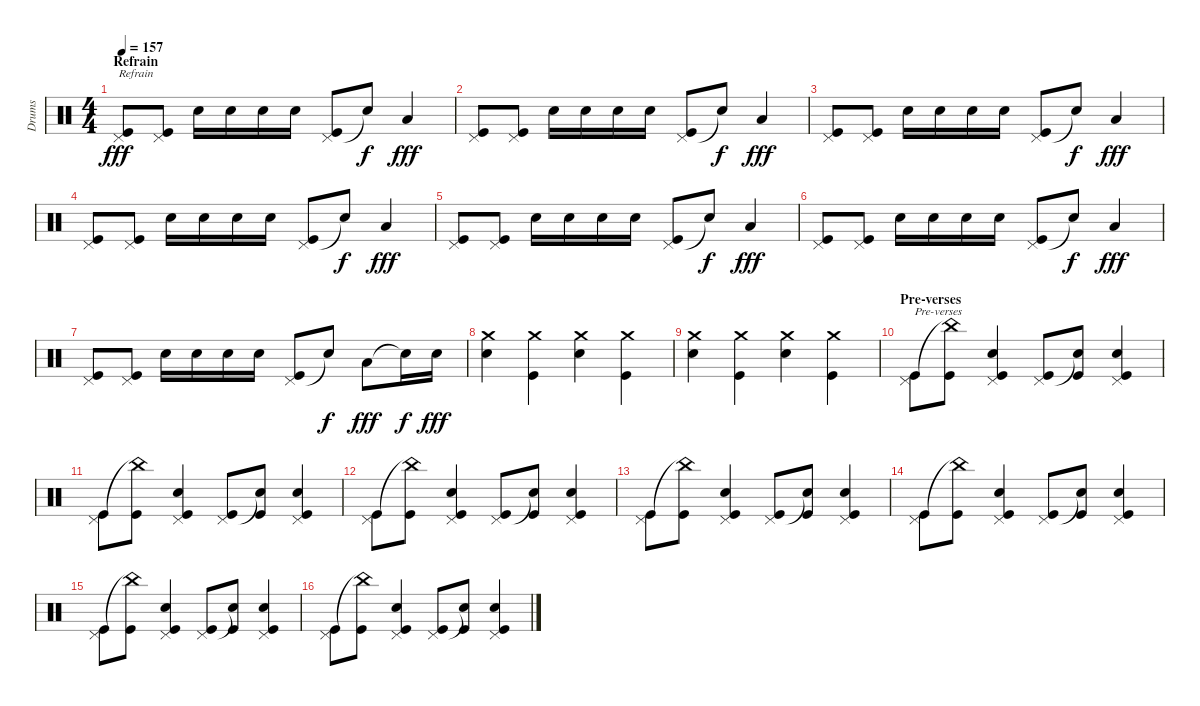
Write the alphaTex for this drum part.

\track ("Drums" "Drums") {instrument percussion}
\staff {score}
\articulation defaults
\ts (4 4)
\section ("" "Refrain")
\tempo 157
\clef neutral
\ks c
("Pedal Hi-Hat (hit)" "Kick (hit)").8{txt "Refrain" dy fff} ("Pedal Hi-Hat (hit)" "Kick (hit)").8 "Electric Snare (hit)".16 "Electric Snare (hit)".16 "Electric Snare (hit)".16 "Electric Snare (hit)".16 ("Pedal Hi-Hat (hit)" "Kick (hit)").8 "Snare (hit)"{t}.8{dy f} "Low Tom (hit)".4{dy fff} |
("Pedal Hi-Hat (hit)" "Kick (hit)").8 ("Pedal Hi-Hat (hit)" "Kick (hit)").8 "Electric Snare (hit)".16 "Electric Snare (hit)".16 "Electric Snare (hit)".16 "Electric Snare (hit)".16 ("Pedal Hi-Hat (hit)" "Kick (hit)").8 "Snare (hit)"{t}.8{dy f} "Low Tom (hit)".4{dy fff} |
("Pedal Hi-Hat (hit)" "Kick (hit)").8 ("Pedal Hi-Hat (hit)" "Kick (hit)").8 "Electric Snare (hit)".16 "Electric Snare (hit)".16 "Electric Snare (hit)".16 "Electric Snare (hit)".16 ("Pedal Hi-Hat (hit)" "Kick (hit)").8 "Snare (hit)"{t}.8{dy f} "Low Tom (hit)".4{dy fff} |
("Pedal Hi-Hat (hit)" "Kick (hit)").8 ("Pedal Hi-Hat (hit)" "Kick (hit)").8 "Electric Snare (hit)".16 "Electric Snare (hit)".16 "Electric Snare (hit)".16 "Electric Snare (hit)".16 ("Pedal Hi-Hat (hit)" "Kick (hit)").8 "Snare (hit)"{t}.8{dy f} "Low Tom (hit)".4{dy fff} |
("Pedal Hi-Hat (hit)" "Kick (hit)").8 ("Pedal Hi-Hat (hit)" "Kick (hit)").8 "Electric Snare (hit)".16 "Electric Snare (hit)".16 "Electric Snare (hit)".16 "Electric Snare (hit)".16 ("Pedal Hi-Hat (hit)" "Kick (hit)").8 "Snare (hit)"{t}.8{dy f} "Low Tom (hit)".4{dy fff} |
("Pedal Hi-Hat (hit)" "Kick (hit)").8 ("Pedal Hi-Hat (hit)" "Kick (hit)").8 "Electric Snare (hit)".16 "Electric Snare (hit)".16 "Electric Snare (hit)".16 "Electric Snare (hit)".16 ("Pedal Hi-Hat (hit)" "Kick (hit)").8 "Snare (hit)"{t}.8{dy f} "Low Tom (hit)".4{dy fff} |
("Pedal Hi-Hat (hit)" "Kick (hit)").8 ("Pedal Hi-Hat (hit)" "Kick (hit)").8 "Electric Snare (hit)".16 "Electric Snare (hit)".16 "Electric Snare (hit)".16 "Electric Snare (hit)".16 ("Pedal Hi-Hat (hit)" "Kick (hit)").8 "Snare (hit)"{t}.8{dy f} "Low Tom (hit)".8{dy fff} "Snare (hit)"{t}.16{dy f} "Electric Snare (hit)".16{dy fff} |
("Crash medium (hit)" "Electric Snare (hit)").4 ("Crash medium (hit)" "Kick (hit)").4 ("Crash medium (hit)" "Electric Snare (hit)").4 ("Crash medium (hit)" "Kick (hit)").4 |
("Crash medium (hit)" "Electric Snare (hit)").4 ("Crash medium (hit)" "Kick (hit)").4 ("Crash medium (hit)" "Electric Snare (hit)").4 ("Crash medium (hit)" "Kick (hit)").4 |
\section ("" "Pre-verses")
("Pedal Hi-Hat (hit)" "Kick (hit)").8{txt "Pre-verses"} ("China (hit)"{t} "Kick (hit)").8 ("Pedal Hi-Hat (hit)" "Electric Snare (hit)" "Kick (hit)").4 ("Pedal Hi-Hat (hit)" "Kick (hit)").8 ("Snare (hit)"{t} "Kick (hit)").8 ("Pedal Hi-Hat (hit)" "Electric Snare (hit)" "Kick (hit)").4 |
("Pedal Hi-Hat (hit)" "Kick (hit)").8 ("China (hit)"{t} "Kick (hit)").8 ("Pedal Hi-Hat (hit)" "Electric Snare (hit)" "Kick (hit)").4 ("Pedal Hi-Hat (hit)" "Kick (hit)").8 ("Snare (hit)"{t} "Kick (hit)").8 ("Pedal Hi-Hat (hit)" "Electric Snare (hit)" "Kick (hit)").4 |
("Pedal Hi-Hat (hit)" "Kick (hit)").8 ("China (hit)"{t} "Kick (hit)").8 ("Pedal Hi-Hat (hit)" "Electric Snare (hit)" "Kick (hit)").4 ("Pedal Hi-Hat (hit)" "Kick (hit)").8 ("Snare (hit)"{t} "Kick (hit)").8 ("Pedal Hi-Hat (hit)" "Electric Snare (hit)" "Kick (hit)").4 |
("Pedal Hi-Hat (hit)" "Kick (hit)").8 ("China (hit)"{t} "Kick (hit)").8 ("Pedal Hi-Hat (hit)" "Electric Snare (hit)" "Kick (hit)").4 ("Pedal Hi-Hat (hit)" "Kick (hit)").8 ("Snare (hit)"{t} "Kick (hit)").8 ("Pedal Hi-Hat (hit)" "Electric Snare (hit)" "Kick (hit)").4 |
("Pedal Hi-Hat (hit)" "Kick (hit)").8 ("China (hit)"{t} "Kick (hit)").8 ("Pedal Hi-Hat (hit)" "Electric Snare (hit)" "Kick (hit)").4 ("Pedal Hi-Hat (hit)" "Kick (hit)").8 ("Snare (hit)"{t} "Kick (hit)").8 ("Pedal Hi-Hat (hit)" "Electric Snare (hit)" "Kick (hit)").4 |
("Pedal Hi-Hat (hit)" "Kick (hit)").8 ("China (hit)"{t} "Kick (hit)").8 ("Pedal Hi-Hat (hit)" "Electric Snare (hit)" "Kick (hit)").4 ("Pedal Hi-Hat (hit)" "Kick (hit)").8 ("Snare (hit)"{t} "Kick (hit)").8 ("Pedal Hi-Hat (hit)" "Electric Snare (hit)" "Kick (hit)").4 |
("Pedal Hi-Hat (hit)" "Kick (hit)").8 ("China (hit)"{t} "Kick (hit)").8 ("Pedal Hi-Hat (hit)" "Electric Snare (hit)" "Kick (hit)").4 ("Pedal Hi-Hat (hit)" "Kick (hit)").8 ("Snare (hit)"{t} "Kick (hit)").8 ("Pedal Hi-Hat (hit)" "Electric Snare (hit)" "Kick (hit)").4
